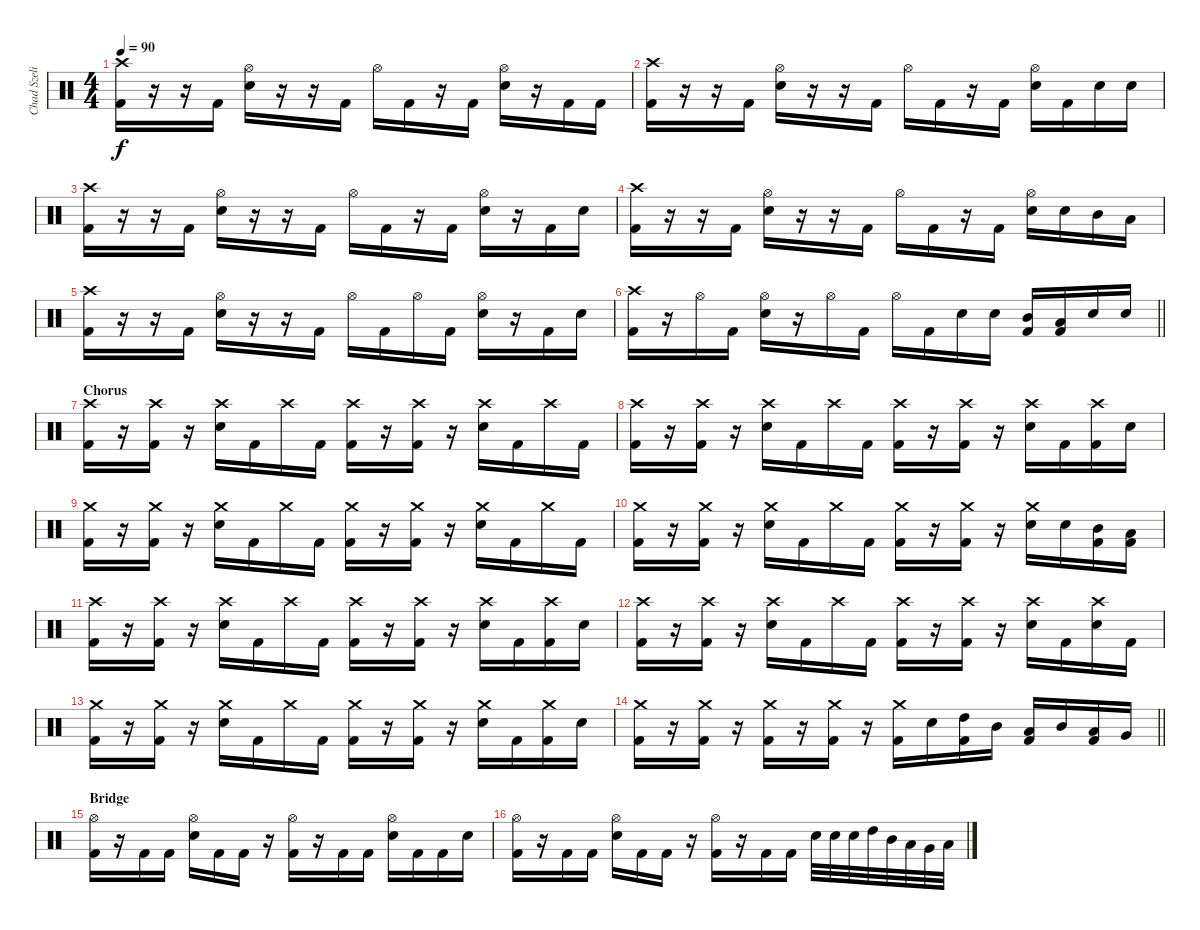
\track ("Chad Szeliga" "Chad Szeli") {instrument percussion}
\staff {score}
\articulation defaults
\ts (4 4)
\tempo 90
\clef neutral
\ks c
("Crash high (hit)" "Kick (hit) 2").16{dy f} r.16 r.16 "Kick (hit) 2".16 ("Hi-Hat (open)" "Electric Snare (hit)").16 r.16 r.16 "Kick (hit) 2".16 "Hi-Hat (open)".16 "Kick (hit) 2".16 r.16 "Kick (hit) 2".16 ("Hi-Hat (open)" "Electric Snare (hit)").16 r.16 "Kick (hit) 2".16 "Kick (hit) 2".16 |
("Crash high (hit)" "Kick (hit) 2").16 r.16 r.16 "Kick (hit) 2".16 ("Hi-Hat (open)" "Electric Snare (hit)").16 r.16 r.16 "Kick (hit) 2".16 "Hi-Hat (open)".16 "Kick (hit) 2".16 r.16 "Kick (hit) 2".16 ("Hi-Hat (open)" "Electric Snare (hit)").16 "Kick (hit) 2".16 "Electric Snare (hit)".16 "Electric Snare (hit)".16 |
("Crash high (hit)" "Kick (hit) 2").16 r.16 r.16 "Kick (hit) 2".16 ("Hi-Hat (open)" "Electric Snare (hit)").16 r.16 r.16 "Kick (hit) 2".16 "Hi-Hat (open)".16 "Kick (hit) 2".16 r.16 "Kick (hit) 2".16 ("Hi-Hat (open)" "Electric Snare (hit)").16 r.16 "Kick (hit) 2".16 "Electric Snare (hit)".16 |
("Crash high (hit)" "Kick (hit) 2").16 r.16 r.16 "Kick (hit) 2".16 ("Hi-Hat (open)" "Electric Snare (hit)").16 r.16 r.16 "Kick (hit) 2".16 "Hi-Hat (open)".16 "Kick (hit) 2".16 r.16 "Kick (hit) 2".16 ("Hi-Hat (open)" "Electric Snare (hit)").16 "Electric Snare (hit)".16 "Mid Tom (hit)".16 "Low Tom (hit)".16 |
("Crash high (hit)" "Kick (hit) 2").16 r.16 r.16 "Kick (hit) 2".16 ("Hi-Hat (open)" "Electric Snare (hit)").16 r.16 r.16 "Kick (hit) 2".16 "Hi-Hat (open)".16 "Kick (hit) 2".16 "Hi-Hat (open)".16 "Kick (hit) 2".16 ("Hi-Hat (open)" "Electric Snare (hit)").16 r.16 "Kick (hit) 2".16 "Electric Snare (hit)".16 |
\barLineRight lightlight
("Crash high (hit)" "Kick (hit) 2").16 r.16 "Hi-Hat (open)".16 "Kick (hit) 2".16 ("Hi-Hat (open)" "Electric Snare (hit)").16 r.16 "Hi-Hat (open)".16 "Kick (hit) 2".16 "Hi-Hat (open)".16 "Kick (hit) 2".16 "Electric Snare (hit)".16 "Electric Snare (hit)".16 ("Mid Tom (hit)" "Kick (hit) 2").16 ("Low Tom (hit)" "Kick (hit) 2").16 "Electric Snare (hit)".16 "Electric Snare (hit)".16 |
\section ("" "Chorus")
("Crash high (hit)" "Kick (hit) 2").16 r.16 ("Crash high (hit)" "Kick (hit) 2").16 r.16 ("Crash high (hit)" "Electric Snare (hit)").16 "Kick (hit) 2".16 "Crash high (hit)".16 "Kick (hit) 2".16 ("Crash high (hit)" "Kick (hit) 2").16 r.16 ("Crash high (hit)" "Kick (hit) 2").16 r.16 ("Crash high (hit)" "Electric Snare (hit)").16 "Kick (hit) 2".16 "Crash high (hit)".16 "Kick (hit) 2".16 |
("Crash high (hit)" "Kick (hit) 2").16 r.16 ("Crash high (hit)" "Kick (hit) 2").16 r.16 ("Crash high (hit)" "Electric Snare (hit)").16 "Kick (hit) 2".16 "Crash high (hit)".16 "Kick (hit) 2".16 ("Crash high (hit)" "Kick (hit) 2").16 r.16 ("Crash high (hit)" "Kick (hit) 2").16 r.16 ("Crash high (hit)" "Electric Snare (hit)").16 "Kick (hit) 2".16 ("Crash high (hit)" "Kick (hit) 2").16 "Electric Snare (hit)".16 |
("Crash medium (hit)" "Kick (hit) 2").16 r.16 ("Crash medium (hit)" "Kick (hit) 2").16 r.16 ("Crash medium (hit)" "Electric Snare (hit)").16 "Kick (hit) 2".16 "Crash medium (hit)".16 "Kick (hit) 2".16 ("Crash medium (hit)" "Kick (hit) 2").16 r.16 ("Crash medium (hit)" "Kick (hit) 2").16 r.16 ("Crash medium (hit)" "Electric Snare (hit)").16 "Kick (hit) 2".16 "Crash medium (hit)".16 "Kick (hit) 2".16 |
("Crash medium (hit)" "Kick (hit) 2").16 r.16 ("Crash medium (hit)" "Kick (hit) 2").16 r.16 ("Crash medium (hit)" "Electric Snare (hit)").16 "Kick (hit) 2".16 "Crash medium (hit)".16 "Kick (hit) 2".16 ("Crash medium (hit)" "Kick (hit) 2").16 r.16 ("Crash medium (hit)" "Kick (hit) 2").16 r.16 ("Crash medium (hit)" "Electric Snare (hit)").16 "Electric Snare (hit)".16 ("Mid Tom (hit)" "Kick (hit) 2").16 ("Low Tom (hit)" "Kick (hit) 2").16 |
("Crash high (hit)" "Kick (hit) 2").16 r.16 ("Crash high (hit)" "Kick (hit) 2").16 r.16 ("Crash high (hit)" "Electric Snare (hit)").16 "Kick (hit) 2".16 "Crash high (hit)".16 "Kick (hit) 2".16 ("Crash high (hit)" "Kick (hit) 2").16 r.16 ("Crash high (hit)" "Kick (hit) 2").16 r.16 ("Crash high (hit)" "Electric Snare (hit)").16 "Kick (hit) 2".16 ("Crash high (hit)" "Kick (hit) 2").16 "Electric Snare (hit)".16 |
("Crash high (hit)" "Kick (hit) 2").16 r.16 ("Crash high (hit)" "Kick (hit) 2").16 r.16 ("Crash high (hit)" "Electric Snare (hit)").16 "Kick (hit) 2".16 "Crash high (hit)".16 "Kick (hit) 2".16 ("Crash high (hit)" "Kick (hit) 2").16 r.16 ("Crash high (hit)" "Kick (hit) 2").16 r.16 ("Crash high (hit)" "Electric Snare (hit)").16 "Kick (hit) 2".16 ("Crash high (hit)" "Electric Snare (hit)").16 "Kick (hit) 2".16 |
("Crash medium (hit)" "Kick (hit) 2").16 r.16 ("Crash medium (hit)" "Kick (hit) 2").16 r.16 ("Crash medium (hit)" "Electric Snare (hit)").16 "Kick (hit) 2".16 "Crash medium (hit)".16 "Kick (hit) 2".16 ("Crash medium (hit)" "Kick (hit) 2").16 r.16 ("Crash medium (hit)" "Kick (hit) 2").16 r.16 ("Crash medium (hit)" "Electric Snare (hit)").16 "Kick (hit) 2".16 ("Crash medium (hit)" "Kick (hit) 2").16 "Electric Snare (hit)".16 |
\barLineRight lightlight
("Crash medium (hit)" "Kick (hit) 2").16 r.16 ("Crash medium (hit)" "Kick (hit) 2").16 r.16 ("Crash medium (hit)" "Kick (hit) 2").16 r.16 ("Crash medium (hit)" "Kick (hit) 2").16 r.16 ("Crash medium (hit)" "Kick (hit) 2").16 "Electric Snare (hit)".16 ("High Tom (hit)" "Kick (hit) 2").16 "Mid Tom (hit)".16 ("Low Tom (hit)" "Kick (hit) 2").16 "Mid Tom (hit)".16 ("Low Tom (hit)" "Kick (hit) 2").16 "Very Low Tom (hit)".16 |
\section ("" "Bridge")
("Hi-Hat (open)" "Kick (hit) 2").16 r.16 "Kick (hit) 2".16 "Kick (hit) 2".16 ("Hi-Hat (open)" "Electric Snare (hit)").16 "Kick (hit) 2".16 "Kick (hit) 2".16 r.16 ("Hi-Hat (open)" "Kick (hit) 2").16 r.16 "Kick (hit) 2".16 "Kick (hit) 2".16 ("Hi-Hat (open)" "Electric Snare (hit)").16 "Kick (hit) 2".16 "Kick (hit) 2".16 "Electric Snare (hit)".16 |
("Hi-Hat (open)" "Kick (hit) 2").16 r.16 "Kick (hit) 2".16 "Kick (hit) 2".16 ("Hi-Hat (open)" "Electric Snare (hit)").16 "Kick (hit) 2".16 "Kick (hit) 2".16 r.16 ("Hi-Hat (open)" "Kick (hit) 2").16 r.16 "Kick (hit) 2".16 "Kick (hit) 2".16 "Electric Snare (hit)".32 "Electric Snare (hit)".32 "Electric Snare (hit)".32 "High Tom (hit)".32 "Mid Tom (hit)".32 "Low Tom (hit)".32 "Very Low Tom (hit)".32 "Low Floor Tom (hit)".32
